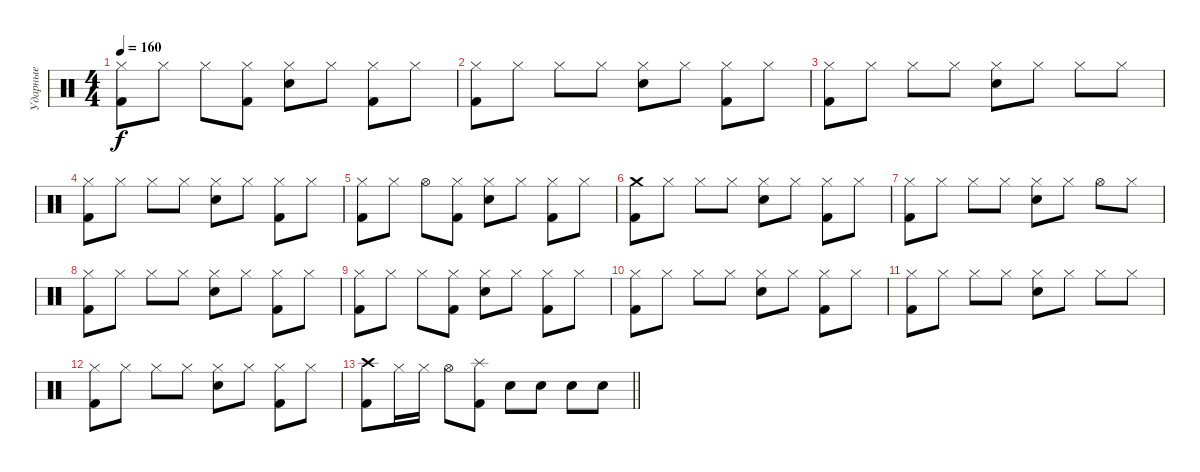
\track ("Ударные" "Ударные") {instrument percussion}
\staff {score}
\articulation defaults
\ts (4 4)
\tempo 160
\clef neutral
\ks c
("Kick (hit) 2" "Hi-Hat (closed)").8{dy f} "Hi-Hat (closed)".8 "Hi-Hat (closed)".8 ("Kick (hit) 2" "Hi-Hat (closed)").8 ("Electric Snare (hit)" "Hi-Hat (closed)").8 "Hi-Hat (closed)".8 ("Kick (hit) 2" "Hi-Hat (closed)").8 "Hi-Hat (closed)".8 |
("Kick (hit) 2" "Hi-Hat (closed)").8 "Hi-Hat (closed)".8 "Hi-Hat (closed)".8 "Hi-Hat (closed)".8 ("Electric Snare (hit)" "Hi-Hat (closed)").8 "Hi-Hat (closed)".8 ("Kick (hit) 2" "Hi-Hat (closed)").8 "Hi-Hat (closed)".8 |
("Kick (hit) 2" "Hi-Hat (closed)").8 "Hi-Hat (closed)".8 "Hi-Hat (closed)".8 "Hi-Hat (closed)".8 ("Electric Snare (hit)" "Hi-Hat (closed)").8 "Hi-Hat (closed)".8 "Hi-Hat (closed)".8 "Hi-Hat (closed)".8 |
("Kick (hit) 2" "Hi-Hat (closed)").8 "Hi-Hat (closed)".8 "Hi-Hat (closed)".8 "Hi-Hat (closed)".8 ("Electric Snare (hit)" "Hi-Hat (closed)").8 "Hi-Hat (closed)".8 ("Kick (hit) 2" "Hi-Hat (closed)").8 "Hi-Hat (closed)".8 |
("Kick (hit) 2" "Hi-Hat (closed)").8 "Hi-Hat (closed)".8 "Hi-Hat (open)".8 ("Kick (hit) 2" "Hi-Hat (closed)").8 ("Electric Snare (hit)" "Hi-Hat (closed)").8 "Hi-Hat (closed)".8 ("Kick (hit) 2" "Hi-Hat (closed)").8 "Hi-Hat (closed)".8 |
("Kick (hit) 2" "Crash medium (hit)").8 "Hi-Hat (closed)".8 "Hi-Hat (closed)".8 "Hi-Hat (closed)".8 ("Electric Snare (hit)" "Hi-Hat (closed)").8 "Hi-Hat (closed)".8 ("Kick (hit) 2" "Hi-Hat (closed)").8 "Hi-Hat (closed)".8 |
("Kick (hit) 2" "Hi-Hat (closed)").8 "Hi-Hat (closed)".8 "Hi-Hat (closed)".8 "Hi-Hat (closed)".8 ("Electric Snare (hit)" "Hi-Hat (closed)").8 "Hi-Hat (closed)".8 "Hi-Hat (open)".8 "Hi-Hat (closed)".8 |
("Kick (hit) 2" "Hi-Hat (closed)").8 "Hi-Hat (closed)".8 "Hi-Hat (closed)".8 "Hi-Hat (closed)".8 ("Electric Snare (hit)" "Hi-Hat (closed)").8 "Hi-Hat (closed)".8 ("Kick (hit) 2" "Hi-Hat (closed)").8 "Hi-Hat (closed)".8 |
("Kick (hit) 2" "Hi-Hat (closed)").8 "Hi-Hat (closed)".8 "Hi-Hat (closed)".8 ("Kick (hit) 2" "Hi-Hat (closed)").8 ("Electric Snare (hit)" "Hi-Hat (closed)").8 "Hi-Hat (closed)".8 ("Kick (hit) 2" "Hi-Hat (closed)").8 "Hi-Hat (closed)".8 |
("Kick (hit) 2" "Hi-Hat (closed)").8 "Hi-Hat (closed)".8 "Hi-Hat (closed)".8 "Hi-Hat (closed)".8 ("Electric Snare (hit)" "Hi-Hat (closed)").8 "Hi-Hat (closed)".8 ("Kick (hit) 2" "Hi-Hat (closed)").8 "Hi-Hat (closed)".8 |
("Kick (hit) 2" "Hi-Hat (closed)").8 "Hi-Hat (closed)".8 "Hi-Hat (closed)".8 "Hi-Hat (closed)".8 ("Electric Snare (hit)" "Hi-Hat (closed)").8 "Hi-Hat (closed)".8 "Hi-Hat (closed)".8 "Hi-Hat (closed)".8 |
("Kick (hit) 2" "Hi-Hat (closed)").8 "Hi-Hat (closed)".8 "Hi-Hat (closed)".8 "Hi-Hat (closed)".8 ("Electric Snare (hit)" "Hi-Hat (closed)").8 "Hi-Hat (closed)".8 ("Kick (hit) 2" "Hi-Hat (closed)").8 "Hi-Hat (closed)".8 |
\barLineRight lightlight
("Kick (hit) 2" "Crash high (hit)").8 "Hi-Hat (closed)".16 "Hi-Hat (closed)".16 "Hi-Hat (open)".8 ("Kick (hit) 2" "Splash (hit)").8 "Electric Snare (hit)".8 "Electric Snare (hit)".8 "Electric Snare (hit)".8 "Electric Snare (hit)".8
